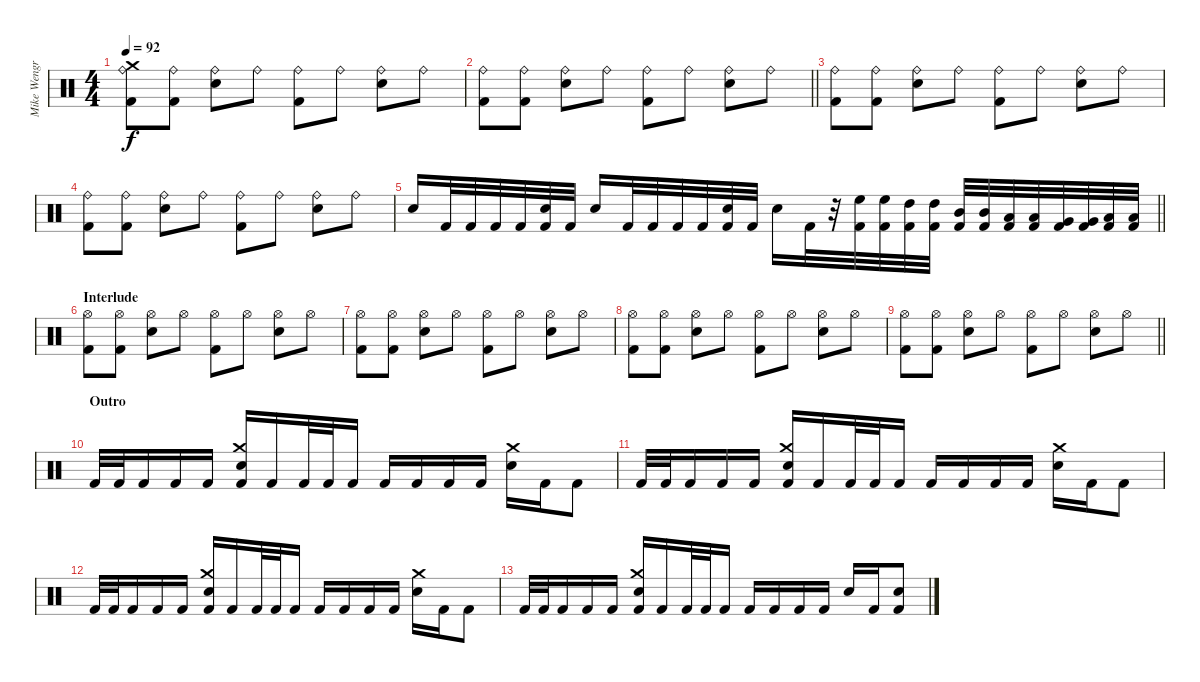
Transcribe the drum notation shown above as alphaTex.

\track ("Mike Wengren" "Mike Wengr") {instrument percussion}
\staff {score}
\articulation defaults
\ts (4 4)
\tempo 92
\clef neutral
\ks c
("Kick (hit) 2" "Ride (bell)" "Crash medium (hit)").8{dy f} ("Kick (hit) 2" "Ride (bell)").8 ("Electric Snare (hit)" "Ride (bell)").8 "Ride (bell)".8 ("Kick (hit) 2" "Ride (bell)").8 "Ride (bell)".8 ("Electric Snare (hit)" "Ride (bell)").8 "Ride (bell)".8 |
\barLineRight lightlight
("Kick (hit) 2" "Ride (bell)").8 ("Kick (hit) 2" "Ride (bell)").8 ("Electric Snare (hit)" "Ride (bell)").8 "Ride (bell)".8 ("Kick (hit) 2" "Ride (bell)").8 "Ride (bell)".8 ("Electric Snare (hit)" "Ride (bell)").8 "Ride (bell)".8 |
("Kick (hit) 2" "Ride (bell)").8 ("Kick (hit) 2" "Ride (bell)").8 ("Electric Snare (hit)" "Ride (bell)").8 "Ride (bell)".8 ("Kick (hit) 2" "Ride (bell)").8 "Ride (bell)".8 ("Electric Snare (hit)" "Ride (bell)").8 "Ride (bell)".8 |
("Kick (hit) 2" "Ride (bell)").8 ("Kick (hit) 2" "Ride (bell)").8 ("Electric Snare (hit)" "Ride (bell)").8 "Ride (bell)".8 ("Kick (hit) 2" "Ride (bell)").8 "Ride (bell)".8 ("Electric Snare (hit)" "Ride (bell)").8 "Ride (bell)".8 |
\barLineRight lightlight "Electric Snare (hit)".16 "Kick (hit) 2".32 "Kick (hit) 2".32 "Kick (hit) 2".32 "Kick (hit) 2".32
("Kick (hit) 2" "Electric Snare (hit)").32 "Kick (hit) 2".32 "Electric Snare (hit)".16 "Kick (hit) 2".32 "Kick (hit) 2".32 "Kick (hit) 2".32 "Kick (hit) 2".32 ("Kick (hit) 2" "Electric Snare (hit)").32 "Kick (hit) 2".32 "Electric Snare (hit)".16 "Kick (hit) 2".32 r.32 ("Kick (hit) 2" "High Floor Tom (hit)").32 ("Kick (hit) 2" "High Floor Tom (hit)").32 ("Kick (hit) 2" "High Tom (hit)").32 ("Kick (hit) 2" "High Tom (hit)").32 ("Kick (hit) 2" "Mid Tom (hit)").32 ("Kick (hit) 2" "Mid Tom (hit)").32 ("Kick (hit) 2" "Low Tom (hit)").32 ("Kick (hit) 2" "Low Tom (hit)").32 ("Kick (hit) 2" "Very Low Tom (hit)").32 ("Kick (hit) 2" "Very Low Tom (hit)").32 ("Kick (hit) 2" "Low Floor Tom (hit)").32 ("Kick (hit) 2" "Low Floor Tom (hit)").32 |
\section ("" "Interlude")
("Kick (hit) 2" "Hi-Hat (open)").8 ("Kick (hit) 2" "Hi-Hat (open)").8 ("Electric Snare (hit)" "Hi-Hat (open)").8 "Hi-Hat (open)".8 ("Kick (hit) 2" "Hi-Hat (open)").8 "Hi-Hat (open)".8 ("Electric Snare (hit)" "Hi-Hat (open)").8 "Hi-Hat (open)".8 |
("Kick (hit) 2" "Hi-Hat (open)").8 ("Kick (hit) 2" "Hi-Hat (open)").8 ("Electric Snare (hit)" "Hi-Hat (open)").8 "Hi-Hat (open)".8 ("Kick (hit) 2" "Hi-Hat (open)").8 "Hi-Hat (open)".8 ("Electric Snare (hit)" "Hi-Hat (open)").8 "Hi-Hat (open)".8 |
("Kick (hit) 2" "Hi-Hat (open)").8 ("Kick (hit) 2" "Hi-Hat (open)").8 ("Electric Snare (hit)" "Hi-Hat (open)").8 "Hi-Hat (open)".8 ("Kick (hit) 2" "Hi-Hat (open)").8 "Hi-Hat (open)".8 ("Electric Snare (hit)" "Hi-Hat (open)").8 "Hi-Hat (open)".8 |
\barLineRight lightlight
("Kick (hit) 2" "Hi-Hat (open)").8 ("Kick (hit) 2" "Hi-Hat (open)").8 ("Electric Snare (hit)" "Hi-Hat (open)").8 "Hi-Hat (open)".8 ("Kick (hit) 2" "Hi-Hat (open)").8 "Hi-Hat (open)".8 ("Electric Snare (hit)" "Hi-Hat (open)").8 "Hi-Hat (open)".8 |
\section ("" "Outro")
"Kick (hit) 2".32 "Kick (hit) 2".32 "Kick (hit) 2".16 "Kick (hit) 2".16 "Kick (hit) 2".16 ("Kick (hit) 2" "Electric Snare (hit)" "Crash medium (hit)").16 "Kick (hit) 2".16 "Kick (hit) 2".32 "Kick (hit) 2".32 "Kick (hit) 2".16 "Kick (hit) 2".16 "Kick (hit) 2".16 "Kick (hit) 2".16 "Kick (hit) 2".16 ("Electric Snare (hit)" "Crash medium (hit)").16 "Kick (hit) 2".16 "Kick (hit) 2".8 |
"Kick (hit) 2".32 "Kick (hit) 2".32 "Kick (hit) 2".16 "Kick (hit) 2".16 "Kick (hit) 2".16 ("Kick (hit) 2" "Electric Snare (hit)" "Crash medium (hit)").16 "Kick (hit) 2".16 "Kick (hit) 2".32 "Kick (hit) 2".32 "Kick (hit) 2".16 "Kick (hit) 2".16 "Kick (hit) 2".16 "Kick (hit) 2".16 "Kick (hit) 2".16 ("Electric Snare (hit)" "Crash medium (hit)").16 "Kick (hit) 2".16 "Kick (hit) 2".8 |
"Kick (hit) 2".32 "Kick (hit) 2".32 "Kick (hit) 2".16 "Kick (hit) 2".16 "Kick (hit) 2".16 ("Kick (hit) 2" "Electric Snare (hit)" "Crash medium (hit)").16 "Kick (hit) 2".16 "Kick (hit) 2".32 "Kick (hit) 2".32 "Kick (hit) 2".16 "Kick (hit) 2".16 "Kick (hit) 2".16 "Kick (hit) 2".16 "Kick (hit) 2".16 ("Electric Snare (hit)" "Crash medium (hit)").16 "Kick (hit) 2".16 "Kick (hit) 2".8 |
"Kick (hit) 2".32 "Kick (hit) 2".32 "Kick (hit) 2".16 "Kick (hit) 2".16 "Kick (hit) 2".16 ("Kick (hit) 2" "Electric Snare (hit)" "Crash medium (hit)").16 "Kick (hit) 2".16 "Kick (hit) 2".32 "Kick (hit) 2".32 "Kick (hit) 2".16 "Kick (hit) 2".16 "Kick (hit) 2".16 "Kick (hit) 2".16 "Kick (hit) 2".16 "Electric Snare (hit)".16 "Kick (hit) 2".16 ("Kick (hit) 2" "Electric Snare (hit)").8
